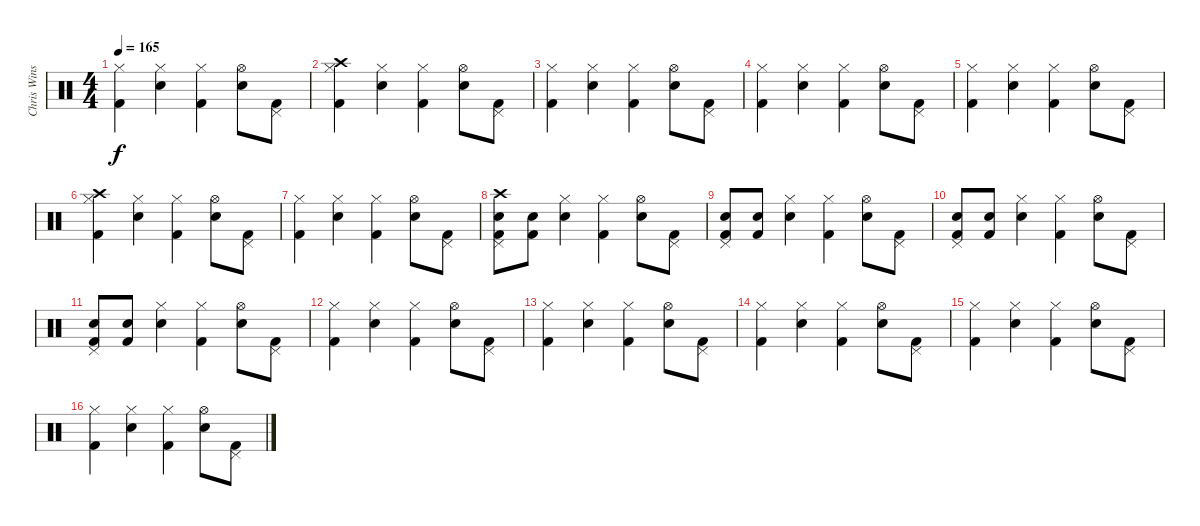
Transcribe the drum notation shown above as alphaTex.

\track ("Chris Winship (Bass)" "Chris Wins") {instrument percussion}
\staff {score}
\articulation defaults
\ts (4 4)
\tempo 165
\clef neutral
\ks c
("Hi-Hat (closed)" "Kick (hit) 2").4{dy f} ("Hi-Hat (closed)" "Snare (hit) 2").4 ("Hi-Hat (closed)" "Kick (hit) 2").4 ("Hi-Hat (open)" "Snare (hit) 2").8 ("Pedal Hi-Hat (hit)" "Kick (hit) 2").8 |
("Crash high (hit)" "Hi-Hat (closed)" "Kick (hit) 2").4 ("Hi-Hat (closed)" "Snare (hit) 2").4 ("Hi-Hat (closed)" "Kick (hit) 2").4 ("Hi-Hat (open)" "Snare (hit) 2").8 ("Pedal Hi-Hat (hit)" "Kick (hit) 2").8 |
("Hi-Hat (closed)" "Kick (hit) 2").4 ("Hi-Hat (closed)" "Snare (hit) 2").4 ("Hi-Hat (closed)" "Kick (hit) 2").4 ("Hi-Hat (open)" "Snare (hit) 2").8 ("Pedal Hi-Hat (hit)" "Kick (hit) 2").8 |
("Hi-Hat (closed)" "Kick (hit) 2").4 ("Hi-Hat (closed)" "Snare (hit) 2").4 ("Hi-Hat (closed)" "Kick (hit) 2").4 ("Hi-Hat (open)" "Snare (hit) 2").8 ("Pedal Hi-Hat (hit)" "Kick (hit) 2").8 |
("Hi-Hat (closed)" "Kick (hit) 2").4 ("Hi-Hat (closed)" "Snare (hit) 2").4 ("Hi-Hat (closed)" "Kick (hit) 2").4 ("Hi-Hat (open)" "Snare (hit) 2").8 ("Pedal Hi-Hat (hit)" "Kick (hit) 2").8 |
("Crash high (hit)" "Hi-Hat (closed)" "Kick (hit) 2").4 ("Hi-Hat (closed)" "Snare (hit) 2").4 ("Hi-Hat (closed)" "Kick (hit) 2").4 ("Hi-Hat (open)" "Snare (hit) 2").8 ("Pedal Hi-Hat (hit)" "Kick (hit) 2").8 |
("Hi-Hat (closed)" "Kick (hit) 2").4 ("Hi-Hat (closed)" "Snare (hit) 2").4 ("Hi-Hat (closed)" "Kick (hit) 2").4 ("Hi-Hat (open)" "Snare (hit) 2").8 ("Pedal Hi-Hat (hit)" "Kick (hit) 2").8 |
("Crash high (hit)" "Pedal Hi-Hat (hit)" "Kick (hit) 2" "Snare (hit) 2").8 ("Snare (hit) 2" "Kick (hit) 2").8 ("Hi-Hat (closed)" "Snare (hit) 2").4 ("Hi-Hat (closed)" "Kick (hit) 2").4 ("Hi-Hat (open)" "Snare (hit) 2").8 ("Pedal Hi-Hat (hit)" "Kick (hit) 2").8 |
("Pedal Hi-Hat (hit)" "Kick (hit) 2" "Snare (hit) 2").8 ("Snare (hit) 2" "Kick (hit) 2").8 ("Hi-Hat (closed)" "Snare (hit) 2").4 ("Hi-Hat (closed)" "Kick (hit) 2").4 ("Hi-Hat (open)" "Snare (hit) 2").8 ("Pedal Hi-Hat (hit)" "Kick (hit) 2").8 |
("Pedal Hi-Hat (hit)" "Kick (hit) 2" "Snare (hit) 2").8 ("Snare (hit) 2" "Kick (hit) 2").8 ("Hi-Hat (closed)" "Snare (hit) 2").4 ("Hi-Hat (closed)" "Kick (hit) 2").4 ("Hi-Hat (open)" "Snare (hit) 2").8 ("Pedal Hi-Hat (hit)" "Kick (hit) 2").8 |
("Pedal Hi-Hat (hit)" "Kick (hit) 2" "Snare (hit) 2").8 ("Snare (hit) 2" "Kick (hit) 2").8 ("Hi-Hat (closed)" "Snare (hit) 2").4 ("Hi-Hat (closed)" "Kick (hit) 2").4 ("Hi-Hat (open)" "Snare (hit) 2").8 ("Pedal Hi-Hat (hit)" "Kick (hit) 2").8 |
("Hi-Hat (closed)" "Kick (hit) 2").4 ("Hi-Hat (closed)" "Snare (hit) 2").4 ("Hi-Hat (closed)" "Kick (hit) 2").4 ("Hi-Hat (open)" "Snare (hit) 2").8 ("Pedal Hi-Hat (hit)" "Kick (hit) 2").8 |
("Hi-Hat (closed)" "Kick (hit) 2").4 ("Hi-Hat (closed)" "Snare (hit) 2").4 ("Hi-Hat (closed)" "Kick (hit) 2").4 ("Hi-Hat (open)" "Snare (hit) 2").8 ("Pedal Hi-Hat (hit)" "Kick (hit) 2").8 |
("Hi-Hat (closed)" "Kick (hit) 2").4 ("Hi-Hat (closed)" "Snare (hit) 2").4 ("Hi-Hat (closed)" "Kick (hit) 2").4 ("Hi-Hat (open)" "Snare (hit) 2").8 ("Pedal Hi-Hat (hit)" "Kick (hit) 2").8 |
("Hi-Hat (closed)" "Kick (hit) 2").4 ("Hi-Hat (closed)" "Snare (hit) 2").4 ("Hi-Hat (closed)" "Kick (hit) 2").4 ("Hi-Hat (open)" "Snare (hit) 2").8 ("Pedal Hi-Hat (hit)" "Kick (hit) 2").8 |
("Hi-Hat (closed)" "Kick (hit) 2").4 ("Hi-Hat (closed)" "Snare (hit) 2").4 ("Hi-Hat (closed)" "Kick (hit) 2").4 ("Hi-Hat (open)" "Snare (hit) 2").8 ("Pedal Hi-Hat (hit)" "Kick (hit) 2").8
